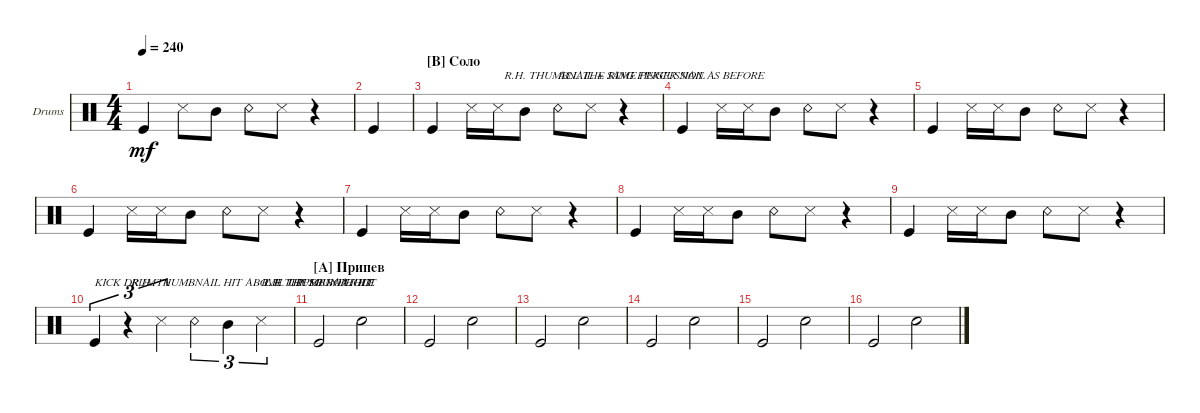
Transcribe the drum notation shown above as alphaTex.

\defaultSystemsLayout 4
\bracketExtendMode groupsimilarinstruments
\firstSystemTrackNameOrientation horizontal
\otherSystemsTrackNameOrientation horizontal
\track ("Drumkit" "Drums") {instrument percussion}
\staff {score}
\articulation defaults
\ts (4 4)
\tempo 240
\clef neutral
\ks c "Kick (hit)".4{dy mf} "Snare (side stick) 3".8 "Mid Tom (hit)".8 "Snare (rim shot)".8 "Snare (side stick) 3".8
r.4 |
"Kick (hit)".4 |
\section ("B" "Соло")
"Kick (hit)".4{txt "                        R.H. THUMBNAIL + RING FINGER NAIL"} "Snare (side stick) 3".16 "Snare (side stick) 3".16 "Mid Tom (hit)".8 "Snare (rim shot)".8{txt "ALL THE SAME PERCUSSION AS BEFORE"} "Snare (side stick) 3".8 r.4 |
"Kick (hit)".4 "Snare (side stick) 3".16 "Snare (side stick) 3".16 "Mid Tom (hit)".8 "Snare (rim shot)".8 "Snare (side stick) 3".8 r.4 |
"Kick (hit)".4 "Snare (side stick) 3".16 "Snare (side stick) 3".16 "Mid Tom (hit)".8 "Snare (rim shot)".8 "Snare (side stick) 3".8 r.4 |
"Kick (hit)".4 "Snare (side stick) 3".16 "Snare (side stick) 3".16 "Mid Tom (hit)".8 "Snare (rim shot)".8 "Snare (side stick) 3".8 r.4 |
"Kick (hit)".4 "Snare (side stick) 3".16 "Snare (side stick) 3".16 "Mid Tom (hit)".8 "Snare (rim shot)".8 "Snare (side stick) 3".8 r.4 |
"Kick (hit)".4 "Snare (side stick) 3".16 "Snare (side stick) 3".16 "Mid Tom (hit)".8 "Snare (rim shot)".8 "Snare (side stick) 3".8 r.4 |
"Kick (hit)".4 "Snare (side stick) 3".16 "Snare (side stick) 3".16 "Mid Tom (hit)".8 "Snare (rim shot)".8 "Snare (side stick) 3".8 r.4 |
"Kick (hit)".4{tu (3 2) txt "KICK DRUM"} r.4{tu (3 2) txt " R.H. THUMBNAIL HIT ABOVE THE SOUNDHOLE"} "Snare (side stick) 3".4{tu (3 2)} "Snare (rim shot)".4{tu (3 2) txt "                       L.H. UPPER BOAT HIT "} "Mid Tom (hit)".4{tu (3 2)} "Snare (side stick) 3".4{tu (3 2) txt "R.H. THUMBNAIL HIT"} |
\section ("A" "Припев")
"Kick (hit)".2 "Snare (hit) 2".2 |
"Kick (hit)".2 "Snare (hit) 2".2 |
"Kick (hit)".2 "Snare (hit) 2".2 |
"Kick (hit)".2 "Snare (hit) 2".2 |
"Kick (hit)".2 "Snare (hit) 2".2 |
"Kick (hit)".2 "Snare (hit) 2".2
